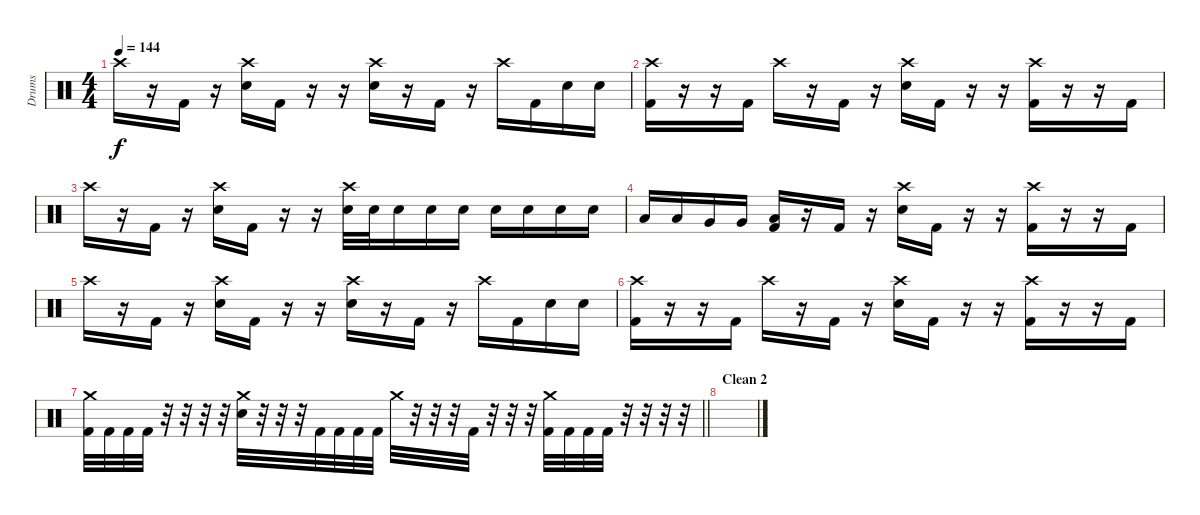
\track ("Drums" "Drums") {instrument percussion}
\staff {score}
\articulation defaults
\ts (4 4)
\tempo 144
\clef neutral
\ks c "Crash high (hit)".16{dy f}
r.16 "Kick (hit) 2".16 r.16 ("Crash high (hit)" "Snare (hit) 2").16 "Kick (hit) 2".16 r.16 r.16 ("Crash high (hit)" "Snare (hit) 2").16 r.16 "Kick (hit) 2".16 r.16 "Crash high (hit)".16 "Kick (hit) 2".16 "Snare (hit) 2".16 "Snare (hit) 2".16 |
("Crash high (hit)" "Kick (hit) 2").16 r.16 r.16 "Kick (hit) 2".16 "Crash high (hit)".16 r.16 "Kick (hit) 2".16 r.16 ("Crash high (hit)" "Snare (hit) 2").16 "Kick (hit) 2".16 r.16 r.16 ("Crash high (hit)" "Kick (hit) 2").16 r.16 r.16 "Kick (hit) 2".16 |
"Crash high (hit)".16 r.16 "Kick (hit) 2".16 r.16 ("Crash high (hit)" "Snare (hit) 2").16 "Kick (hit) 2".16 r.16 r.16 ("Crash high (hit)" "Snare (hit) 2").32 "Snare (hit) 2".32 "Snare (hit) 2".16 "Snare (hit) 2".16 "Snare (hit) 2".16 "Snare (hit) 2".16 "Snare (hit) 2".16 "Snare (hit) 2".16 "Snare (hit) 2".16 |
"Low Tom (hit)".16 "Low Tom (hit)".16 "Very Low Tom (hit)".16 "Very Low Tom (hit)".16 ("Low Floor Tom (hit)" "Kick (hit) 2").16 r.16 "Kick (hit) 2".16 r.16 ("Crash high (hit)" "Snare (hit) 2").16 "Kick (hit) 2".16 r.16 r.16 ("Crash high (hit)" "Kick (hit) 2").16 r.16 r.16 "Kick (hit) 2".16 |
"Crash high (hit)".16 r.16 "Kick (hit) 2".16 r.16 ("Crash high (hit)" "Snare (hit) 2").16 "Kick (hit) 2".16 r.16 r.16 ("Crash high (hit)" "Snare (hit) 2").16 r.16 "Kick (hit) 2".16 r.16 "Crash high (hit)".16 "Kick (hit) 2".16 "Snare (hit) 2".16 "Snare (hit) 2".16 |
("Crash high (hit)" "Kick (hit) 2").16 r.16 r.16 "Kick (hit) 2".16 "Crash high (hit)".16 r.16 "Kick (hit) 2".16 r.16 ("Crash high (hit)" "Snare (hit) 2").16 "Kick (hit) 2".16 r.16 r.16 ("Crash high (hit)" "Kick (hit) 2").16 r.16 r.16 "Kick (hit) 2".16 |
\barLineRight lightlight
("Crash medium (hit)" "Kick (hit) 2").32 "Kick (hit) 2".32 "Kick (hit) 2".32 "Kick (hit) 2".32 r.32 r.32 r.32 r.32 ("Crash medium (hit)" "Snare (hit) 2").32 r.32 r.32 r.32 "Kick (hit) 2".32 "Kick (hit) 2".32 "Kick (hit) 2".32 "Kick (hit) 2".32 "Crash medium (hit)".32 r.32 r.32 r.32 "Kick (hit) 2".32 r.32 r.32 r.32 ("Crash medium (hit)" "Kick (hit) 2").32 "Kick (hit) 2".32 "Kick (hit) 2".32 "Kick (hit) 2".32 r.32 r.32 r.32 r.32 |
\section ("" "Clean 2")
